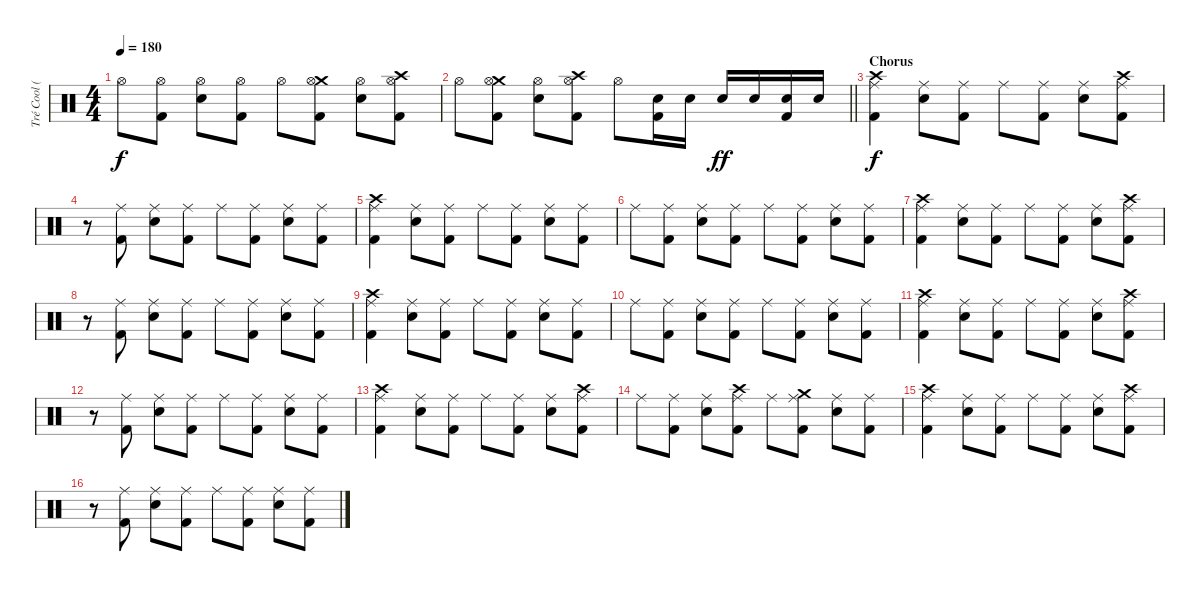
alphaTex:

\track ("Tré Cool (Drums)" "Tré Cool (") {instrument percussion}
\staff {score}
\articulation defaults
\ts (4 4)
\tempo 180
\clef neutral
\ks c "Hi-Hat (open)".8{dy f}
("Hi-Hat (open)" "Kick (hit) 2").8 ("Hi-Hat (open)" "Electric Snare (hit)").8 ("Hi-Hat (open)" "Kick (hit) 2").8 "Hi-Hat (open)".8 ("Crash medium (hit)" "Hi-Hat (open)" "Kick (hit) 2").8 ("Hi-Hat (open)" "Electric Snare (hit)").8 ("Crash high (hit)" "Hi-Hat (open)" "Kick (hit) 2").8 |
\barLineRight lightlight "Hi-Hat (open)".8
("Crash medium (hit)" "Hi-Hat (open)" "Kick (hit) 2").8 ("Hi-Hat (open)" "Electric Snare (hit)").8 ("Crash high (hit)" "Hi-Hat (open)" "Kick (hit) 2").8 "Hi-Hat (open)".8 ("Electric Snare (hit)" "Kick (hit) 2").16 "Electric Snare (hit)".16 "Electric Snare (hit)".16{dy ff} "Electric Snare (hit)".16 ("Electric Snare (hit)" "Kick (hit) 2").16 "Electric Snare (hit)".16 |
\section ("" "Chorus")
("Crash high (hit)" "Ride (middle)" "Kick (hit) 2").4{dy f} ("Ride (middle)" "Electric Snare (hit)").8 ("Ride (middle)" "Kick (hit) 2").8 "Ride (middle)".8 ("Ride (middle)" "Kick (hit) 2").8 ("Ride (middle)" "Electric Snare (hit)").8 ("Crash high (hit)" "Ride (middle)" "Kick (hit) 2").8 |
r.8 ("Ride (middle)" "Kick (hit) 2").8 ("Ride (middle)" "Electric Snare (hit)").8 ("Ride (middle)" "Kick (hit) 2").8 "Ride (middle)".8 ("Ride (middle)" "Kick (hit) 2").8 ("Ride (middle)" "Electric Snare (hit)").8 ("Ride (middle)" "Kick (hit) 2").8 |
("Crash high (hit)" "Ride (middle)" "Kick (hit) 2").4 ("Ride (middle)" "Electric Snare (hit)").8 ("Ride (middle)" "Kick (hit) 2").8 "Ride (middle)".8 ("Ride (middle)" "Kick (hit) 2").8 ("Ride (middle)" "Electric Snare (hit)").8 ("Ride (middle)" "Kick (hit) 2").8 |
"Ride (middle)".8 ("Ride (middle)" "Kick (hit) 2").8 ("Ride (middle)" "Electric Snare (hit)").8 ("Ride (middle)" "Kick (hit) 2").8 "Ride (middle)".8 ("Ride (middle)" "Kick (hit) 2").8 ("Ride (middle)" "Electric Snare (hit)").8 ("Ride (middle)" "Kick (hit) 2").8 |
("Crash high (hit)" "Ride (middle)" "Kick (hit) 2").4 ("Ride (middle)" "Electric Snare (hit)").8 ("Ride (middle)" "Kick (hit) 2").8 "Ride (middle)".8 ("Ride (middle)" "Kick (hit) 2").8 ("Ride (middle)" "Electric Snare (hit)").8 ("Crash high (hit)" "Ride (middle)" "Kick (hit) 2").8 |
r.8 ("Ride (middle)" "Kick (hit) 2").8 ("Ride (middle)" "Electric Snare (hit)").8 ("Ride (middle)" "Kick (hit) 2").8 "Ride (middle)".8 ("Ride (middle)" "Kick (hit) 2").8 ("Ride (middle)" "Electric Snare (hit)").8 ("Ride (middle)" "Kick (hit) 2").8 |
("Crash high (hit)" "Ride (middle)" "Kick (hit) 2").4 ("Ride (middle)" "Electric Snare (hit)").8 ("Ride (middle)" "Kick (hit) 2").8 "Ride (middle)".8 ("Ride (middle)" "Kick (hit) 2").8 ("Ride (middle)" "Electric Snare (hit)").8 ("Ride (middle)" "Kick (hit) 2").8 |
"Ride (middle)".8 ("Ride (middle)" "Kick (hit) 2").8 ("Ride (middle)" "Electric Snare (hit)").8 ("Ride (middle)" "Kick (hit) 2").8 "Ride (middle)".8 ("Ride (middle)" "Kick (hit) 2").8 ("Ride (middle)" "Electric Snare (hit)").8 ("Ride (middle)" "Kick (hit) 2").8 |
("Crash high (hit)" "Ride (middle)" "Kick (hit) 2").4 ("Ride (middle)" "Electric Snare (hit)").8 ("Ride (middle)" "Kick (hit) 2").8 "Ride (middle)".8 ("Ride (middle)" "Kick (hit) 2").8 ("Ride (middle)" "Electric Snare (hit)").8 ("Crash high (hit)" "Ride (middle)" "Kick (hit) 2").8 |
r.8 ("Ride (middle)" "Kick (hit) 2").8 ("Ride (middle)" "Electric Snare (hit)").8 ("Ride (middle)" "Kick (hit) 2").8 "Ride (middle)".8 ("Ride (middle)" "Kick (hit) 2").8 ("Ride (middle)" "Electric Snare (hit)").8 ("Ride (middle)" "Kick (hit) 2").8 |
("Crash high (hit)" "Ride (middle)" "Kick (hit) 2").4 ("Ride (middle)" "Electric Snare (hit)").8 ("Ride (middle)" "Kick (hit) 2").8 "Ride (middle)".8 ("Ride (middle)" "Kick (hit) 2").8 ("Ride (middle)" "Electric Snare (hit)").8 ("Crash high (hit)" "Ride (middle)" "Kick (hit) 2").8 |
"Ride (middle)".8 ("Ride (middle)" "Kick (hit) 2").8 ("Ride (middle)" "Electric Snare (hit)").8 ("Crash high (hit)" "Ride (middle)" "Kick (hit) 2").8 "Ride (middle)".8 ("Crash medium (hit)" "Ride (middle)" "Kick (hit) 2").8 ("Ride (middle)" "Electric Snare (hit)").8 ("Ride (middle)" "Kick (hit) 2").8 |
("Crash high (hit)" "Ride (middle)" "Kick (hit) 2").4 ("Ride (middle)" "Electric Snare (hit)").8 ("Ride (middle)" "Kick (hit) 2").8 "Ride (middle)".8 ("Ride (middle)" "Kick (hit) 2").8 ("Ride (middle)" "Electric Snare (hit)").8 ("Crash high (hit)" "Ride (middle)" "Kick (hit) 2").8 |
r.8 ("Ride (middle)" "Kick (hit) 2").8 ("Ride (middle)" "Electric Snare (hit)").8 ("Ride (middle)" "Kick (hit) 2").8 "Ride (middle)".8 ("Ride (middle)" "Kick (hit) 2").8 ("Ride (middle)" "Electric Snare (hit)").8 ("Ride (middle)" "Kick (hit) 2").8
